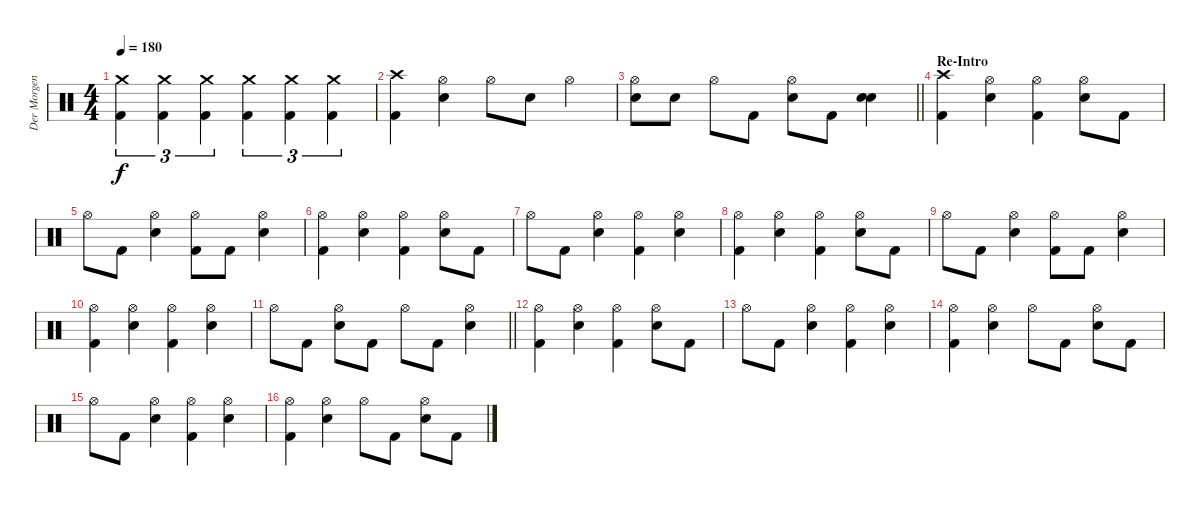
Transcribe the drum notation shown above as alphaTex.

\track ("Der Morgenstern" "Der Morgen") {instrument percussion}
\staff {score}
\articulation defaults
\ts (4 4)
\tempo 180
\clef neutral
\ks c
("Crash medium (hit)" "Kick (hit) 2").4{tu (3 2) dy f} ("Crash medium (hit)" "Kick (hit) 2").4{tu (3 2)} ("Crash medium (hit)" "Kick (hit) 2").4{tu (3 2)} ("Crash medium (hit)" "Kick (hit) 2").4{tu (3 2)} ("Crash medium (hit)" "Kick (hit) 2").4{tu (3 2)} ("Crash medium (hit)" "Kick (hit) 2").4{tu (3 2)} |
("Crash high (hit)" "Kick (hit) 2").4 ("Hi-Hat (open)" "Electric Snare (hit)").4 "Hi-Hat (open)".8 "Electric Snare (hit)".8 "Hi-Hat (open)".4 |
\barLineRight lightlight
("Hi-Hat (open)" "Electric Snare (hit)").8 "Electric Snare (hit)".8 "Hi-Hat (open)".8 "Kick (hit) 2".8 ("Hi-Hat (open)" "Electric Snare (hit)").8 "Kick (hit) 2".8 ("Electric Snare (hit)" "Electric Snare (hit)").4 |
\section ("" "Re-Intro")
("Crash high (hit)" "Kick (hit) 2").4 ("Hi-Hat (open)" "Electric Snare (hit)").4 ("Hi-Hat (open)" "Kick (hit) 2").4 ("Hi-Hat (open)" "Electric Snare (hit)").8 "Kick (hit) 2".8 |
"Hi-Hat (open)".8 "Kick (hit) 2".8 ("Hi-Hat (open)" "Electric Snare (hit)").4 ("Hi-Hat (open)" "Kick (hit) 2").8 "Kick (hit) 2".8 ("Hi-Hat (open)" "Electric Snare (hit)").4 |
("Hi-Hat (open)" "Kick (hit) 2").4 ("Hi-Hat (open)" "Electric Snare (hit)").4 ("Hi-Hat (open)" "Kick (hit) 2").4 ("Hi-Hat (open)" "Electric Snare (hit)").8 "Kick (hit) 2".8 |
"Hi-Hat (open)".8 "Kick (hit) 2".8 ("Hi-Hat (open)" "Electric Snare (hit)").4 ("Hi-Hat (open)" "Kick (hit) 2").4 ("Hi-Hat (open)" "Electric Snare (hit)").4 |
("Hi-Hat (open)" "Kick (hit) 2").4 ("Hi-Hat (open)" "Electric Snare (hit)").4 ("Hi-Hat (open)" "Kick (hit) 2").4 ("Hi-Hat (open)" "Electric Snare (hit)").8 "Kick (hit) 2".8 |
"Hi-Hat (open)".8 "Kick (hit) 2".8 ("Hi-Hat (open)" "Electric Snare (hit)").4 ("Hi-Hat (open)" "Kick (hit) 2").8 "Kick (hit) 2".8 ("Hi-Hat (open)" "Electric Snare (hit)").4 |
("Hi-Hat (open)" "Kick (hit) 2").4 ("Hi-Hat (open)" "Electric Snare (hit)").4 ("Hi-Hat (open)" "Kick (hit) 2").4 ("Hi-Hat (open)" "Electric Snare (hit)").4 |
\barLineRight lightlight "Hi-Hat (open)".8 "Kick (hit) 2".8
("Hi-Hat (open)" "Electric Snare (hit)").8 "Kick (hit) 2".8 "Hi-Hat (open)".8 "Kick (hit) 2".8 ("Hi-Hat (open)" "Electric Snare (hit)").4 |
("Hi-Hat (open)" "Kick (hit) 2").4 ("Hi-Hat (open)" "Electric Snare (hit)").4 ("Hi-Hat (open)" "Kick (hit) 2").4 ("Hi-Hat (open)" "Electric Snare (hit)").8 "Kick (hit) 2".8 |
"Hi-Hat (open)".8 "Kick (hit) 2".8 ("Hi-Hat (open)" "Electric Snare (hit)").4 ("Hi-Hat (open)" "Kick (hit) 2").4 ("Hi-Hat (open)" "Electric Snare (hit)").4 |
("Hi-Hat (open)" "Kick (hit) 2").4 ("Hi-Hat (open)" "Electric Snare (hit)").4 "Hi-Hat (open)".8 "Kick (hit) 2".8 ("Hi-Hat (open)" "Electric Snare (hit)").8 "Kick (hit) 2".8 |
"Hi-Hat (open)".8 "Kick (hit) 2".8 ("Hi-Hat (open)" "Electric Snare (hit)").4 ("Hi-Hat (open)" "Kick (hit) 2").4 ("Hi-Hat (open)" "Electric Snare (hit)").4 |
("Hi-Hat (open)" "Kick (hit) 2").4 ("Hi-Hat (open)" "Electric Snare (hit)").4 "Hi-Hat (open)".8 "Kick (hit) 2".8 ("Hi-Hat (open)" "Electric Snare (hit)").8 "Kick (hit) 2".8
